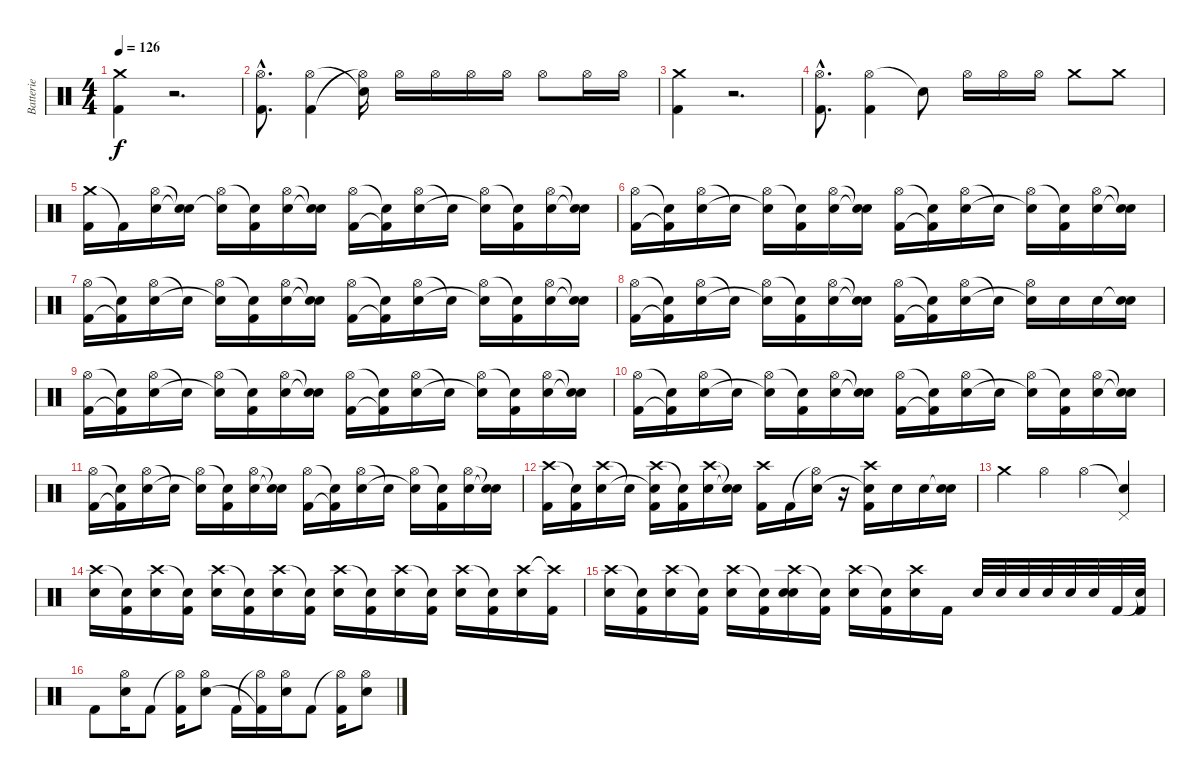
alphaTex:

\track ("Batterie" "Batterie") {instrument percussion}
\staff {score}
\articulation defaults
\ts (4 4)
\tempo 126
\clef neutral
\ks c
("Crash medium (hit)" "Kick (hit) 2").4{dy f} r.2{d} |
("Hi-Hat (open)"{hac} "Kick (hit) 2"{hac}).8{d} ("Hi-Hat (open)" "Kick (hit) 2").4 ("Snare (hit)"{t} "Hi-Hat (open)"{t}).16 "Hi-Hat (open)".16 "Hi-Hat (open)".16 "Hi-Hat (open)".16 "Hi-Hat (open)".16 "Hi-Hat (open)".8 "Hi-Hat (open)".16 "Hi-Hat (open)".16 |
("Crash medium (hit)" "Kick (hit) 2").4 r.2{d} |
("Hi-Hat (open)"{hac} "Kick (hit) 2"{hac}).8{d} ("Hi-Hat (open)" "Kick (hit) 2").4 "Snare (hit)"{t}.8 "Hi-Hat (open)".16 "Hi-Hat (open)".16 "Hi-Hat (open)".16 "Crash medium (hit)".8 "Crash medium (hit)".8 |
("Crash medium (hit)" "Kick (hit) 2").16 "Kick (hit) 2"{t}.16 ("Hi-Hat (open)" "Electric Snare (hit)").16 ("Snare (hit)"{t} "Snare (hit)"{t}).16 ("Hi-Hat (open)" "Electric Snare (hit)"{t}).16 ("Snare (hit)"{t} "Kick (hit) 2").16 ("Hi-Hat (open)" "Electric Snare (hit)").16 ("Snare (hit)"{t} "Electric Snare (hit)"{t}).16 ("Hi-Hat (open)" "Kick (hit) 2").16 ("Snare (hit)"{t} "Kick (hit) 2"{t}).16 ("Hi-Hat (open)" "Electric Snare (hit)").16 "Snare (hit)"{t}.16 ("Hi-Hat (open)" "Electric Snare (hit)"{t}).16 ("Snare (hit)"{t} "Kick (hit) 2").16 ("Hi-Hat (open)" "Electric Snare (hit)").16 ("Snare (hit)"{t} "Electric Snare (hit)"{t}).16 |
("Hi-Hat (open)" "Kick (hit) 2").16 ("Snare (hit)"{t} "Kick (hit) 2"{t}).16 ("Hi-Hat (open)" "Electric Snare (hit)").16 "Snare (hit)"{t}.16 ("Hi-Hat (open)" "Electric Snare (hit)"{t}).16 ("Snare (hit)"{t} "Kick (hit) 2").16 ("Hi-Hat (open)" "Electric Snare (hit)").16 ("Snare (hit)"{t} "Electric Snare (hit)"{t}).16 ("Hi-Hat (open)" "Kick (hit) 2").16 ("Snare (hit)"{t} "Kick (hit) 2"{t}).16 ("Hi-Hat (open)" "Electric Snare (hit)").16 "Snare (hit)"{t}.16 ("Hi-Hat (open)" "Electric Snare (hit)"{t}).16 ("Snare (hit)"{t} "Kick (hit) 2").16 ("Hi-Hat (open)" "Electric Snare (hit)").16 ("Snare (hit)"{t} "Electric Snare (hit)"{t}).16 |
("Hi-Hat (open)" "Kick (hit) 2").16 ("Snare (hit)"{t} "Kick (hit) 2"{t}).16 ("Hi-Hat (open)" "Electric Snare (hit)").16 "Snare (hit)"{t}.16 ("Hi-Hat (open)" "Electric Snare (hit)"{t}).16 ("Snare (hit)"{t} "Kick (hit) 2").16 ("Hi-Hat (open)" "Electric Snare (hit)").16 ("Snare (hit)"{t} "Electric Snare (hit)"{t}).16 ("Hi-Hat (open)" "Kick (hit) 2").16 ("Snare (hit)"{t} "Kick (hit) 2"{t}).16 ("Hi-Hat (open)" "Electric Snare (hit)").16 "Snare (hit)"{t}.16 ("Hi-Hat (open)" "Electric Snare (hit)"{t}).16 ("Snare (hit)"{t} "Kick (hit) 2").16 ("Hi-Hat (open)" "Electric Snare (hit)").16 ("Snare (hit)"{t} "Electric Snare (hit)"{t}).16 |
("Hi-Hat (open)" "Kick (hit) 2").16 ("Snare (hit)"{t} "Kick (hit) 2"{t}).16 ("Hi-Hat (open)" "Electric Snare (hit)").16 "Snare (hit)"{t}.16 ("Hi-Hat (open)" "Electric Snare (hit)"{t}).16 ("Snare (hit)"{t} "Kick (hit) 2").16 ("Hi-Hat (open)" "Electric Snare (hit)").16 ("Snare (hit)"{t} "Electric Snare (hit)"{t}).16 ("Hi-Hat (open)" "Kick (hit) 2").16 ("Snare (hit)"{t} "Kick (hit) 2"{t}).16 ("Hi-Hat (open)" "Electric Snare (hit)").16 "Snare (hit)"{t}.16 ("Hi-Hat (open)" "Electric Snare (hit)"{t}).16 "Electric Snare (hit)".16 "Electric Snare (hit)".16 ("Snare (hit)"{t} "Electric Snare (hit)").16 |
("Hi-Hat (open)" "Kick (hit) 2").16 ("Snare (hit)"{t} "Kick (hit) 2"{t}).16 ("Hi-Hat (open)" "Electric Snare (hit)").16 "Snare (hit)"{t}.16 ("Hi-Hat (open)" "Electric Snare (hit)"{t}).16 ("Snare (hit)"{t} "Kick (hit) 2").16 ("Hi-Hat (open)" "Electric Snare (hit)").16 ("Snare (hit)"{t} "Electric Snare (hit)"{t}).16 ("Hi-Hat (open)" "Kick (hit) 2").16 ("Snare (hit)"{t} "Kick (hit) 2"{t}).16 ("Hi-Hat (open)" "Electric Snare (hit)").16 "Snare (hit)"{t}.16 ("Hi-Hat (open)" "Electric Snare (hit)"{t}).16 ("Snare (hit)"{t} "Kick (hit) 2").16 ("Hi-Hat (open)" "Electric Snare (hit)").16 ("Snare (hit)"{t} "Electric Snare (hit)"{t}).16 |
("Hi-Hat (open)" "Kick (hit) 2").16 ("Snare (hit)"{t} "Kick (hit) 2"{t}).16 ("Hi-Hat (open)" "Electric Snare (hit)").16 "Snare (hit)"{t}.16 ("Hi-Hat (open)" "Electric Snare (hit)"{t}).16 ("Snare (hit)"{t} "Kick (hit) 2").16 ("Hi-Hat (open)" "Electric Snare (hit)").16 ("Snare (hit)"{t} "Electric Snare (hit)"{t}).16 ("Hi-Hat (open)" "Kick (hit) 2").16 ("Snare (hit)"{t} "Kick (hit) 2"{t}).16 ("Hi-Hat (open)" "Electric Snare (hit)").16 "Snare (hit)"{t}.16 ("Hi-Hat (open)" "Electric Snare (hit)"{t}).16 ("Snare (hit)"{t} "Kick (hit) 2").16 ("Hi-Hat (open)" "Electric Snare (hit)").16 ("Snare (hit)"{t} "Electric Snare (hit)"{t}).16 |
("Hi-Hat (open)" "Kick (hit) 2").16 ("Snare (hit)"{t} "Kick (hit) 2"{t}).16 ("Hi-Hat (open)" "Electric Snare (hit)").16 "Snare (hit)"{t}.16 ("Hi-Hat (open)" "Electric Snare (hit)"{t}).16 ("Snare (hit)"{t} "Kick (hit) 2").16 ("Hi-Hat (open)" "Electric Snare (hit)").16 ("Snare (hit)"{t} "Electric Snare (hit)"{t}).16 ("Hi-Hat (open)" "Kick (hit) 2").16 ("Snare (hit)"{t} "Kick (hit) 2"{t}).16 ("Hi-Hat (open)" "Electric Snare (hit)").16 "Snare (hit)"{t}.16 ("Hi-Hat (open)" "Electric Snare (hit)"{t}).16 ("Snare (hit)"{t} "Kick (hit) 2").16 ("Hi-Hat (open)" "Electric Snare (hit)").16 ("Snare (hit)"{t} "Electric Snare (hit)"{t}).16 |
("Crash high (hit)" "Kick (hit) 2").16 ("Snare (hit)"{t} "Kick (hit) 2").16 ("Crash high (hit)" "Electric Snare (hit)").16 "Snare (hit)"{t}.16 ("Crash high (hit)" "Electric Snare (hit)"{t} "Kick (hit) 2").16 ("Snare (hit)"{t} "Kick (hit) 2").16 ("Crash high (hit)" "Electric Snare (hit)").16 ("Snare (hit)"{t} "Electric Snare (hit)"{t}).16 ("Crash high (hit)" "Kick (hit) 2").16 "Kick (hit) 2".16 ("Hi-Hat (open)"{t} "Electric Snare (hit)").16 r.16 ("Crash high (hit)" "Electric Snare (hit)"{t} "Kick (hit) 2").16 "Electric Snare (hit)".16 "Electric Snare (hit)".16 ("Snare (hit)"{t} "Electric Snare (hit)").16 |
"Crash medium (hit)".4 "Hi-Hat (open)".4 "Hi-Hat (open)".4 ("Snare (hit)"{t} "Pedal Hi-Hat (hit)").4 |
("Crash high (hit)" "Electric Snare (hit)").16 ("Snare (hit)"{t} "Kick (hit) 2").16 ("Crash high (hit)" "Electric Snare (hit)").16 ("Snare (hit)"{t} "Kick (hit) 2").16 ("Crash high (hit)" "Electric Snare (hit)").16 ("Snare (hit)"{t} "Kick (hit) 2").16 ("Crash high (hit)" "Electric Snare (hit)").16 ("Snare (hit)"{t} "Kick (hit) 2").16 ("Crash high (hit)" "Electric Snare (hit)").16 ("Snare (hit)"{t} "Kick (hit) 2").16 ("Crash high (hit)" "Electric Snare (hit)").16 ("Snare (hit)"{t} "Kick (hit) 2").16 ("Crash high (hit)" "Electric Snare (hit)").16 ("Snare (hit)"{t} "Kick (hit) 2").16 ("Crash high (hit)" "Electric Snare (hit)").16 ("Crash high (hit)"{t} "Kick (hit) 2").16 |
("Crash high (hit)" "Electric Snare (hit)").16 ("Snare (hit)"{t} "Kick (hit) 2").16 ("Crash high (hit)" "Electric Snare (hit)").16 ("Snare (hit)"{t} "Kick (hit) 2").16 ("Crash high (hit)" "Electric Snare (hit)").16 ("Snare (hit)"{t} "Kick (hit) 2").16 ("Crash high (hit)" "Electric Snare (hit)" "Electric Snare (hit)").16 ("Snare (hit)"{t} "Kick (hit) 2").16 ("Crash high (hit)" "Electric Snare (hit)").16 ("Snare (hit)"{t} "Kick (hit) 2").16 ("Crash high (hit)" "Electric Snare (hit)").16 "Kick (hit) 2".16 "Electric Snare (hit)".32 "Electric Snare (hit)".32 "Electric Snare (hit)".32 "Electric Snare (hit)".32 "Electric Snare (hit)".32 "Electric Snare (hit)".32 "Kick (hit) 2".32 ("Snare (hit)"{t} "Kick (hit) 2").32 |
"Kick (hit) 2".8 ("Hi-Hat (open)" "Electric Snare (hit)").16 "Kick (hit) 2".8 ("Hi-Hat (open)"{t} "Kick (hit) 2").16 ("Hi-Hat (open)" "Electric Snare (hit)").8 "Kick (hit) 2".16 ("Hi-Hat (open)"{t} "Kick (hit) 2"{t}).16 ("Hi-Hat (open)" "Electric Snare (hit)").16 "Kick (hit) 2".8 ("Hi-Hat (open)"{t} "Kick (hit) 2").16 ("Hi-Hat (open)" "Electric Snare (hit)").8
